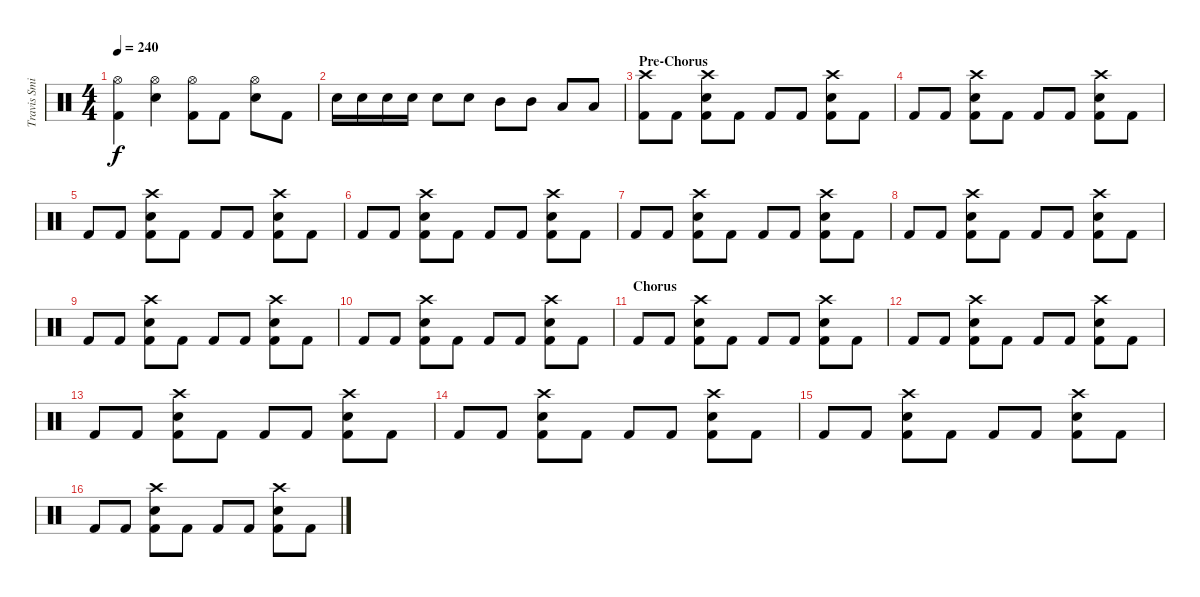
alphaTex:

\track ("Travis Smith (Drums)" "Travis Smi") {instrument percussion}
\staff {score}
\articulation defaults
\ts (4 4)
\tempo 240
\clef neutral
\ks c
("Kick (hit) 2" "Hi-Hat (open)").4{dy f} ("Snare (hit) 2" "Hi-Hat (open)").4 ("Kick (hit) 2" "Hi-Hat (open)").8 "Kick (hit) 2".8 ("Snare (hit) 2" "Hi-Hat (open)").8 "Kick (hit) 2".8 |
"Snare (hit) 2".16 "Snare (hit) 2".16 "Snare (hit) 2".16 "Snare (hit) 2".16 "Snare (hit) 2".8 "Snare (hit) 2".8 "Mid Tom (hit)".8 "Mid Tom (hit)".8 "Low Tom (hit)".8 "Low Tom (hit)".8 |
\section ("" "Pre-Chorus")
("Kick (hit) 2" "Crash high (hit)").8 "Kick (hit) 2".8 ("Kick (hit) 2" "Snare (hit) 2" "Crash high (hit)").8 "Kick (hit) 2".8 "Kick (hit) 2".8 "Kick (hit) 2".8 ("Kick (hit) 2" "Snare (hit) 2" "Crash high (hit)").8 "Kick (hit) 2".8 |
"Kick (hit) 2".8 "Kick (hit) 2".8 ("Kick (hit) 2" "Snare (hit) 2" "Crash high (hit)").8 "Kick (hit) 2".8 "Kick (hit) 2".8 "Kick (hit) 2".8 ("Kick (hit) 2" "Snare (hit) 2" "Crash high (hit)").8 "Kick (hit) 2".8 |
"Kick (hit) 2".8 "Kick (hit) 2".8 ("Kick (hit) 2" "Snare (hit) 2" "Crash high (hit)").8 "Kick (hit) 2".8 "Kick (hit) 2".8 "Kick (hit) 2".8 ("Kick (hit) 2" "Snare (hit) 2" "Crash high (hit)").8 "Kick (hit) 2".8 |
"Kick (hit) 2".8 "Kick (hit) 2".8 ("Kick (hit) 2" "Snare (hit) 2" "Crash high (hit)").8 "Kick (hit) 2".8 "Kick (hit) 2".8 "Kick (hit) 2".8 ("Kick (hit) 2" "Snare (hit) 2" "Crash high (hit)").8 "Kick (hit) 2".8 |
"Kick (hit) 2".8 "Kick (hit) 2".8 ("Kick (hit) 2" "Snare (hit) 2" "Crash high (hit)").8 "Kick (hit) 2".8 "Kick (hit) 2".8 "Kick (hit) 2".8 ("Kick (hit) 2" "Snare (hit) 2" "Crash high (hit)").8 "Kick (hit) 2".8 |
"Kick (hit) 2".8 "Kick (hit) 2".8 ("Kick (hit) 2" "Snare (hit) 2" "Crash high (hit)").8 "Kick (hit) 2".8 "Kick (hit) 2".8 "Kick (hit) 2".8 ("Kick (hit) 2" "Snare (hit) 2" "Crash high (hit)").8 "Kick (hit) 2".8 |
"Kick (hit) 2".8 "Kick (hit) 2".8 ("Kick (hit) 2" "Snare (hit) 2" "Crash high (hit)").8 "Kick (hit) 2".8 "Kick (hit) 2".8 "Kick (hit) 2".8 ("Kick (hit) 2" "Snare (hit) 2" "Crash high (hit)").8 "Kick (hit) 2".8 |
"Kick (hit) 2".8 "Kick (hit) 2".8 ("Kick (hit) 2" "Snare (hit) 2" "Crash high (hit)").8 "Kick (hit) 2".8 "Kick (hit) 2".8 "Kick (hit) 2".8 ("Kick (hit) 2" "Snare (hit) 2" "Crash high (hit)").8 "Kick (hit) 2".8 |
\section ("" "Chorus")
"Kick (hit) 2".8 "Kick (hit) 2".8 ("Kick (hit) 2" "Snare (hit) 2" "Crash high (hit)").8 "Kick (hit) 2".8 "Kick (hit) 2".8 "Kick (hit) 2".8 ("Kick (hit) 2" "Snare (hit) 2" "Crash high (hit)").8 "Kick (hit) 2".8 |
"Kick (hit) 2".8 "Kick (hit) 2".8 ("Kick (hit) 2" "Snare (hit) 2" "Crash high (hit)").8 "Kick (hit) 2".8 "Kick (hit) 2".8 "Kick (hit) 2".8 ("Kick (hit) 2" "Snare (hit) 2" "Crash high (hit)").8 "Kick (hit) 2".8 |
"Kick (hit) 2".8 "Kick (hit) 2".8 ("Kick (hit) 2" "Snare (hit) 2" "Crash high (hit)").8 "Kick (hit) 2".8 "Kick (hit) 2".8 "Kick (hit) 2".8 ("Kick (hit) 2" "Snare (hit) 2" "Crash high (hit)").8 "Kick (hit) 2".8 |
"Kick (hit) 2".8 "Kick (hit) 2".8 ("Kick (hit) 2" "Snare (hit) 2" "Crash high (hit)").8 "Kick (hit) 2".8 "Kick (hit) 2".8 "Kick (hit) 2".8 ("Kick (hit) 2" "Snare (hit) 2" "Crash high (hit)").8 "Kick (hit) 2".8 |
"Kick (hit) 2".8 "Kick (hit) 2".8 ("Kick (hit) 2" "Snare (hit) 2" "Crash high (hit)").8 "Kick (hit) 2".8 "Kick (hit) 2".8 "Kick (hit) 2".8 ("Kick (hit) 2" "Snare (hit) 2" "Crash high (hit)").8 "Kick (hit) 2".8 |
"Kick (hit) 2".8 "Kick (hit) 2".8 ("Kick (hit) 2" "Snare (hit) 2" "Crash high (hit)").8 "Kick (hit) 2".8 "Kick (hit) 2".8 "Kick (hit) 2".8 ("Kick (hit) 2" "Snare (hit) 2" "Crash high (hit)").8 "Kick (hit) 2".8
